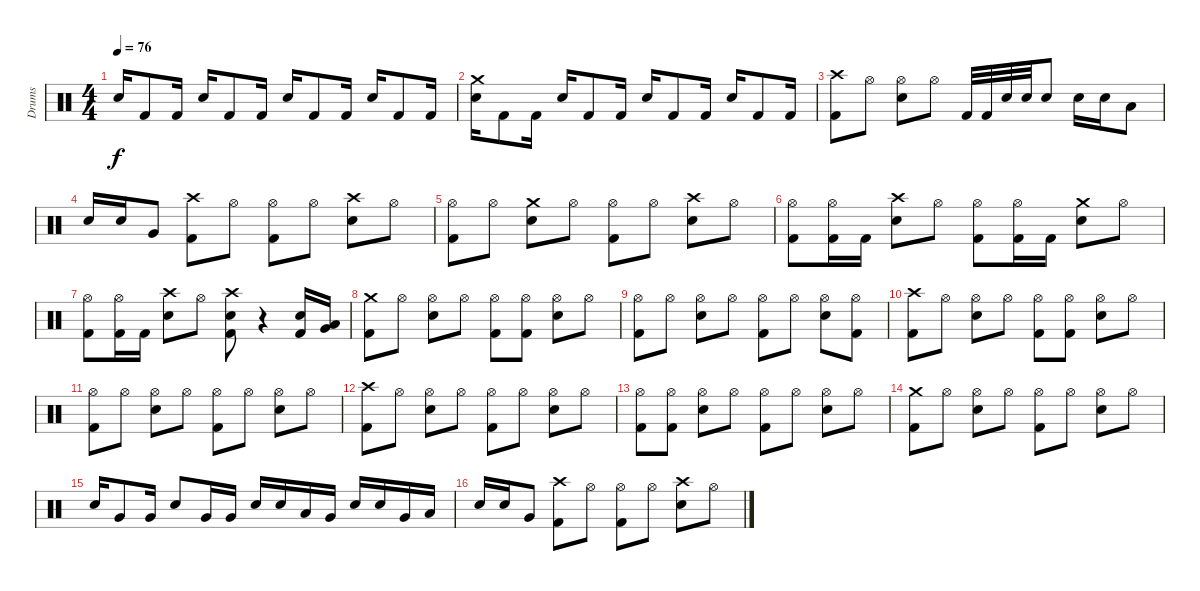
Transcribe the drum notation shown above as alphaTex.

\track ("Drums" "Drums") {instrument percussion}
\staff {score}
\articulation defaults
\ts (4 4)
\tempo 76
\clef neutral
\ks c "Snare (hit) 2".16{dy f} "Kick (hit) 2".8 "Kick (hit) 2".16 "Snare (hit) 2".16 "Kick (hit) 2".8 "Kick (hit) 2".16 "Snare (hit) 2".16 "Kick (hit) 2".8 "Kick (hit) 2".16 "Snare (hit) 2".16 "Kick (hit) 2".8 "Kick (hit) 2".16
|
("Crash medium (hit)" "Snare (hit) 2").16 "Kick (hit) 2".8 "Kick (hit) 2".16 "Snare (hit) 2".16 "Kick (hit) 2".8 "Kick (hit) 2".16 "Snare (hit) 2".16 "Kick (hit) 2".8 "Kick (hit) 2".16 "Snare (hit) 2".16 "Kick (hit) 2".8 "Kick (hit) 2".16 |
("Crash high (hit)" "Kick (hit) 2").8 "Hi-Hat (open)".8 ("Snare (hit) 2" "Hi-Hat (open)").8 "Hi-Hat (open)".8 "Kick (hit) 2".32 "Kick (hit) 2".32 "Snare (hit) 2".32 "Snare (hit) 2".32 "Snare (hit) 2".8 "Snare (hit) 2".16 "Snare (hit) 2".16 "Low Tom (hit)".8 |
"Snare (hit) 2".16 "Snare (hit) 2".16 "Very Low Tom (hit)".8 ("Crash high (hit)" "Kick (hit) 2").8 "Hi-Hat (open)".8 ("Kick (hit) 2" "Hi-Hat (open)").8 "Hi-Hat (open)".8 ("Crash high (hit)" "Snare (hit) 2").8 "Hi-Hat (open)".8 |
("Kick (hit) 2" "Hi-Hat (open)").8 "Hi-Hat (open)".8 ("Snare (hit) 2" "Crash medium (hit)").8 "Hi-Hat (open)".8 ("Kick (hit) 2" "Hi-Hat (open)").8 "Hi-Hat (open)".8 ("Crash high (hit)" "Snare (hit) 2").8 "Hi-Hat (open)".8 |
("Kick (hit) 2" "Hi-Hat (open)").8 ("Hi-Hat (open)" "Kick (hit) 2").16 "Kick (hit) 2".16 ("Crash high (hit)" "Snare (hit) 2").8 "Hi-Hat (open)".8 ("Kick (hit) 2" "Hi-Hat (open)").8 ("Hi-Hat (open)" "Kick (hit) 2").16 "Kick (hit) 2".16 ("Snare (hit) 2" "Crash medium (hit)").8 "Hi-Hat (open)".8 |
("Kick (hit) 2" "Hi-Hat (open)").8 ("Hi-Hat (open)" "Kick (hit) 2").16 "Kick (hit) 2".16 ("Crash high (hit)" "Snare (hit) 2").8 "Hi-Hat (open)".8 ("Snare (hit) 2" "Crash high (hit)" "Kick (hit) 2").8 r.4 ("Kick (hit) 2" "Snare (hit) 2").16 ("Very Low Tom (hit)" "Low Tom (hit)").16 |
("Crash medium (hit)" "Kick (hit) 2").8 "Hi-Hat (open)".8 ("Hi-Hat (open)" "Snare (hit) 2").8 "Hi-Hat (open)".8 ("Kick (hit) 2" "Hi-Hat (open)").8 ("Kick (hit) 2" "Hi-Hat (open)").8 ("Snare (hit) 2" "Hi-Hat (open)").8 "Hi-Hat (open)".8 |
("Kick (hit) 2" "Hi-Hat (open)").8 "Hi-Hat (open)".8 ("Snare (hit) 2" "Hi-Hat (open)").8 "Hi-Hat (open)".8 ("Kick (hit) 2" "Hi-Hat (open)").8 "Hi-Hat (open)".8 ("Snare (hit) 2" "Hi-Hat (open)").8 ("Kick (hit) 2" "Hi-Hat (open)").8 |
("Crash high (hit)" "Kick (hit) 2").8 "Hi-Hat (open)".8 ("Snare (hit) 2" "Hi-Hat (open)").8 "Hi-Hat (open)".8 ("Hi-Hat (open)" "Kick (hit) 2").8 ("Hi-Hat (open)" "Kick (hit) 2").8 ("Hi-Hat (open)" "Snare (hit) 2").8 "Hi-Hat (open)".8 |
("Kick (hit) 2" "Hi-Hat (open)").8 "Hi-Hat (open)".8 ("Hi-Hat (open)" "Snare (hit) 2").8 "Hi-Hat (open)".8 ("Hi-Hat (open)" "Kick (hit) 2").8 "Hi-Hat (open)".8 ("Snare (hit) 2" "Hi-Hat (open)").8 "Hi-Hat (open)".8 |
("Crash high (hit)" "Kick (hit) 2").8 "Hi-Hat (open)".8 ("Snare (hit) 2" "Hi-Hat (open)").8 "Hi-Hat (open)".8 ("Hi-Hat (open)" "Kick (hit) 2").8 "Hi-Hat (open)".8 ("Snare (hit) 2" "Hi-Hat (open)").8 "Hi-Hat (open)".8 |
("Kick (hit) 2" "Hi-Hat (open)").8 ("Kick (hit) 2" "Hi-Hat (open)").8 ("Snare (hit) 2" "Hi-Hat (open)").8 "Hi-Hat (open)".8 ("Hi-Hat (open)" "Kick (hit) 2").8 "Hi-Hat (open)".8 ("Hi-Hat (open)" "Snare (hit) 2").8 "Hi-Hat (open)".8 |
("Crash medium (hit)" "Kick (hit) 2").8 "Hi-Hat (open)".8 ("Snare (hit) 2" "Hi-Hat (open)").8 "Hi-Hat (open)".8 ("Kick (hit) 2" "Hi-Hat (open)").8 "Hi-Hat (open)".8 ("Snare (hit) 2" "Hi-Hat (open)").8 "Hi-Hat (open)".8 |
"Snare (hit) 2".16 "Very Low Tom (hit)".8 "Very Low Tom (hit)".16 "Snare (hit) 2".8 "Very Low Tom (hit)".16 "Very Low Tom (hit)".16 "Snare (hit) 2".16 "Snare (hit) 2".16 "Low Tom (hit)".16 "Very Low Tom (hit)".16 "Snare (hit) 2".16 "Snare (hit) 2".16 "Very Low Tom (hit)".16 "Low Floor Tom (hit)".16 |
"Snare (hit) 2".16 "Snare (hit) 2".16 "Very Low Tom (hit)".8 ("Crash high (hit)" "Kick (hit) 2").8 "Hi-Hat (open)".8 ("Kick (hit) 2" "Hi-Hat (open)").8 "Hi-Hat (open)".8 ("Snare (hit) 2" "Crash high (hit)").8 "Hi-Hat (open)".8
